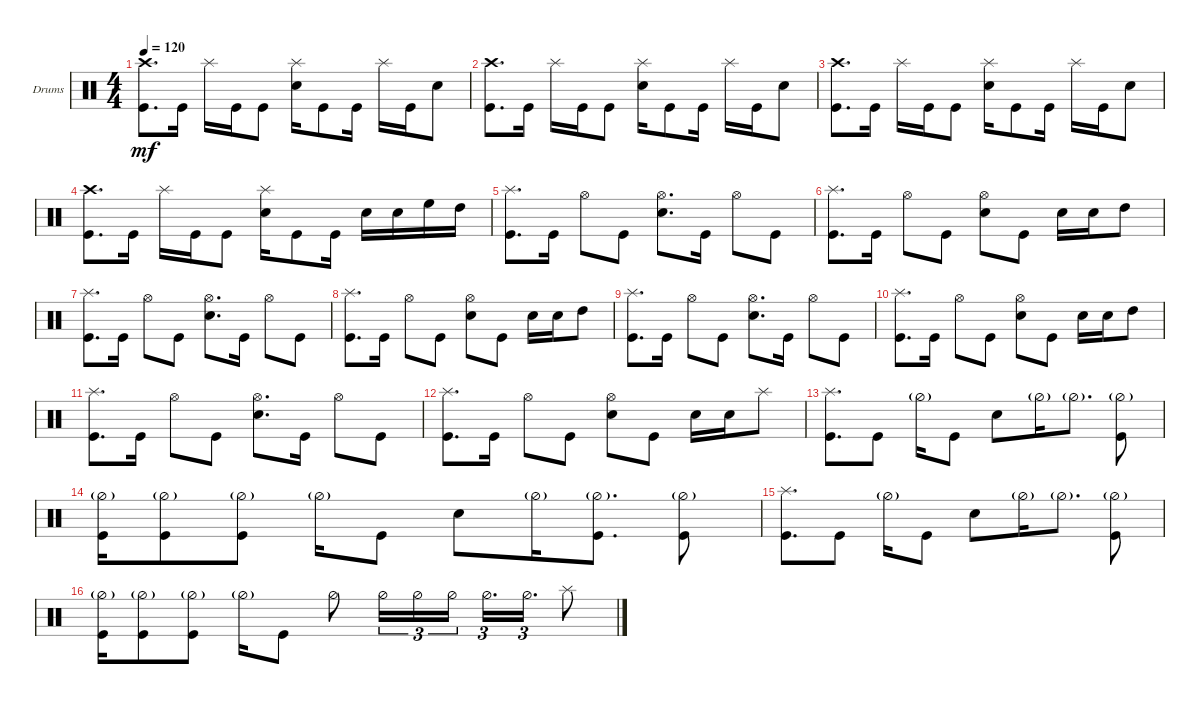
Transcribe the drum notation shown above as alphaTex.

\defaultSystemsLayout 4
\bracketExtendMode groupsimilarinstruments
\firstSystemTrackNameOrientation horizontal
\otherSystemsTrackNameOrientation horizontal
\track ("Kai" "Drums") {instrument percussion}
\staff {score}
\articulation defaults
\ts (4 4)
\tempo 120
\clef neutral
\ks c
("Crash high (hit)" "Kick (hit)").8{d dy mf} "Kick (hit)".16 "Splash (hit)".16 "Kick (hit)".16 "Kick (hit)".8 ("Snare (hit) 2" "Splash (hit)").16 "Kick (hit)".8 "Kick (hit)".16 "Splash (hit)".16 "Kick (hit)".16 "Snare (hit) 2".8 |
("Crash high (hit)" "Kick (hit)").8{d} "Kick (hit)".16 "Splash (hit)".16 "Kick (hit)".16 "Kick (hit)".8 ("Snare (hit) 2" "Splash (hit)").16 "Kick (hit)".8 "Kick (hit)".16 "Splash (hit)".16 "Kick (hit)".16 "Snare (hit) 2".8 |
("Crash high (hit)" "Kick (hit)").8{d} "Kick (hit)".16 "Splash (hit)".16 "Kick (hit)".16 "Kick (hit)".8 ("Snare (hit) 2" "Splash (hit)").16 "Kick (hit)".8 "Kick (hit)".16 "Splash (hit)".16 "Kick (hit)".16 "Snare (hit) 2".8 |
("Crash high (hit)" "Kick (hit)").8{d} "Kick (hit)".16 "Splash (hit)".16 "Kick (hit)".16 "Kick (hit)".8 ("Snare (hit) 2" "Splash (hit)").16 "Kick (hit)".8 "Kick (hit)".16 "Snare (hit) 2".16 "Snare (hit) 2".16 "High Floor Tom (hit)".16 "High Tom (hit)".16 |
("Kick (hit)" "Splash (hit)").8{d} "Kick (hit)".16 "Hi-Hat (open)".8 "Kick (hit)".8 ("Hi-Hat (open)" "Snare (hit) 2").8{d} "Kick (hit)".16 "Hi-Hat (open)".8 "Kick (hit)".8 |
("Kick (hit)" "Splash (hit)").8{d} "Kick (hit)".16 "Hi-Hat (open)".8 "Kick (hit)".8 ("Hi-Hat (open)" "Snare (hit) 2").8 "Kick (hit)".8 "Snare (hit) 2".16 "Snare (hit) 2".16 "High Tom (hit)".8 |
("Kick (hit)" "Splash (hit)").8{d} "Kick (hit)".16 "Hi-Hat (open)".8 "Kick (hit)".8 ("Hi-Hat (open)" "Snare (hit) 2").8{d} "Kick (hit)".16 "Hi-Hat (open)".8 "Kick (hit)".8 |
("Kick (hit)" "Splash (hit)").8{d} "Kick (hit)".16 "Hi-Hat (open)".8 "Kick (hit)".8 ("Hi-Hat (open)" "Snare (hit) 2").8 "Kick (hit)".8 "Snare (hit) 2".16 "Snare (hit) 2".16 "High Tom (hit)".8 |
("Kick (hit)" "Splash (hit)").8{d} "Kick (hit)".16 "Hi-Hat (open)".8 "Kick (hit)".8 ("Hi-Hat (open)" "Snare (hit) 2").8{d} "Kick (hit)".16 "Hi-Hat (open)".8 "Kick (hit)".8 |
("Kick (hit)" "Splash (hit)").8{d} "Kick (hit)".16 "Hi-Hat (open)".8 "Kick (hit)".8 ("Hi-Hat (open)" "Snare (hit) 2").8 "Kick (hit)".8 "Snare (hit) 2".16 "Snare (hit) 2".16 "High Tom (hit)".8 |
("Kick (hit)" "Splash (hit)").8{d} "Kick (hit)".16 "Hi-Hat (open)".8 "Kick (hit)".8 ("Hi-Hat (open)" "Snare (hit) 2").8{d} "Kick (hit)".16 "Hi-Hat (open)".8 "Kick (hit)".8 |
("Kick (hit)" "Splash (hit)").8{d} "Kick (hit)".16 "Hi-Hat (open)".8 "Kick (hit)".8 ("Hi-Hat (open)" "Snare (hit) 2").8 "Kick (hit)".8 "Snare (hit) 2".16 "Snare (hit) 2".16 "Splash (hit)".8 |
("Kick (hit)" "Splash (hit)").8{d} "Kick (hit)".8 "Hi-Hat (half)"{g}.16 "Kick (hit)".8 "Snare (hit) 2".8 "Hi-Hat (half)"{g}.16 "Hi-Hat (half)"{g}.8{d} ("Kick (hit)" "Hi-Hat (half)"{g}).8 |
("Kick (hit)" "Hi-Hat (half)"{g}).16 ("Kick (hit)" "Hi-Hat (half)"{g}).8 ("Kick (hit)" "Hi-Hat (half)"{g}).8 "Hi-Hat (half)"{g}.16 "Kick (hit)".8 "Snare (hit) 2".8 "Hi-Hat (half)"{g}.16 ("Hi-Hat (half)"{g} "Kick (hit)").8{d} ("Kick (hit)" "Hi-Hat (half)"{g}).8 |
("Kick (hit)" "Splash (hit)").8{d} "Kick (hit)".8 "Hi-Hat (half)"{g}.16 "Kick (hit)".8 "Snare (hit) 2".8 "Hi-Hat (half)"{g}.16 "Hi-Hat (half)"{g}.8{d} ("Kick (hit)" "Hi-Hat (half)"{g}).8 |
("Kick (hit)" "Hi-Hat (half)"{g}).16 ("Kick (hit)" "Hi-Hat (half)"{g}).8 ("Kick (hit)" "Hi-Hat (half)"{g}).8 "Hi-Hat (half)"{g}.16 "Kick (hit)".8 "Hi-Hat (half)".8 "Hi-Hat (half)".16{tu (3 2)} "Hi-Hat (half)".16{tu (3 2)} "Hi-Hat (half)".16{tu (3 2)} "Hi-Hat (half)".16{d tu (3 2)} "Hi-Hat (half)".16{d tu (3 2)} "Splash (hit)".8
